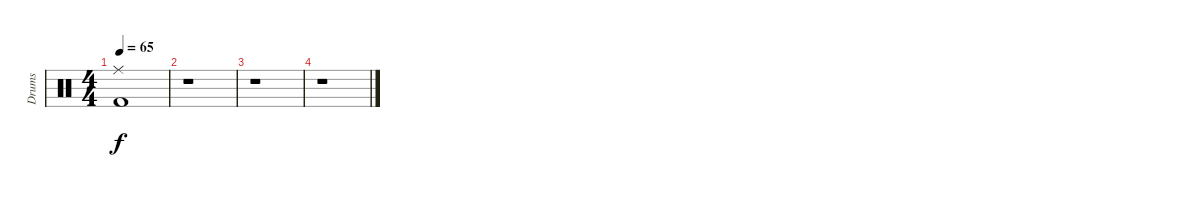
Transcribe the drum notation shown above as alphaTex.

\track ("Drums" "Drums") {instrument percussion}
\staff {score}
\articulation defaults
\ts (4 4)
\tempo 65
\clef neutral
\ks c
("Ride (middle)" "Kick (hit) 2").1{dy f} |
r.1 |
r.1 |
r.1
